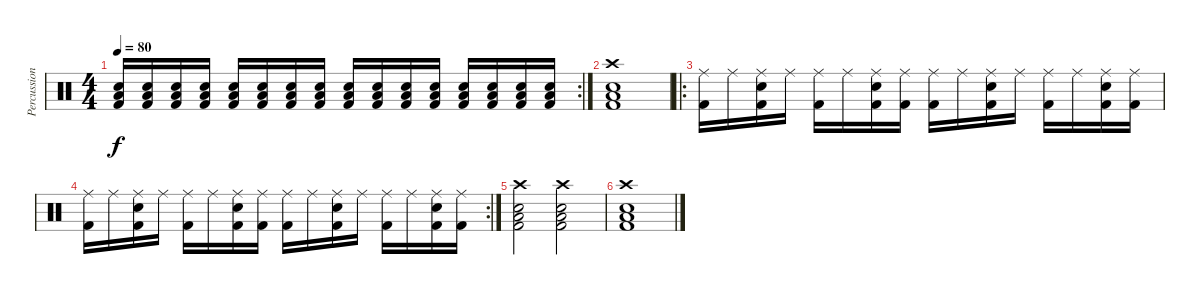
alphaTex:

\track ("Percussions" "Percussion") {instrument percussion}
\staff {score}
\articulation defaults
\rc 2
\ts (4 4)
\tempo 80
\clef neutral
\ks c
("Snare (hit) 2" "Low Tom (hit)" "Kick (hit) 2").16{dy f} ("Snare (hit) 2" "Low Tom (hit)" "Kick (hit) 2").16 ("Snare (hit) 2" "Low Tom (hit)" "Kick (hit) 2").16 ("Snare (hit) 2" "Low Tom (hit)" "Kick (hit) 2").16 ("Snare (hit) 2" "Low Tom (hit)" "Kick (hit) 2").16 ("Snare (hit) 2" "Low Tom (hit)" "Kick (hit) 2").16 ("Snare (hit) 2" "Low Tom (hit)" "Kick (hit) 2").16 ("Snare (hit) 2" "Low Tom (hit)" "Kick (hit) 2").16 ("Snare (hit) 2" "Low Tom (hit)" "Kick (hit) 2").16 ("Snare (hit) 2" "Low Tom (hit)" "Kick (hit) 2").16 ("Snare (hit) 2" "Low Tom (hit)" "Kick (hit) 2").16 ("Snare (hit) 2" "Low Tom (hit)" "Kick (hit) 2").16 ("Snare (hit) 2" "Low Tom (hit)" "Kick (hit) 2").16 ("Snare (hit) 2" "Low Tom (hit)" "Kick (hit) 2").16 ("Snare (hit) 2" "Low Tom (hit)" "Kick (hit) 2").16 ("Snare (hit) 2" "Low Tom (hit)" "Kick (hit) 2").16 |
("Crash high (hit)" "Snare (hit) 2" "Low Tom (hit)" "Kick (hit) 2").1 |
\ro
("Ride (middle)" "Kick (hit) 2").16 "Ride (middle)".16 ("Ride (middle)" "Snare (hit) 2" "Kick (hit) 2").16 "Ride (middle)".16 ("Ride (middle)" "Kick (hit) 2").16 "Ride (middle)".16 ("Ride (middle)" "Snare (hit) 2" "Kick (hit) 2").16 ("Ride (middle)" "Kick (hit) 2").16 ("Ride (middle)" "Kick (hit) 2").16 "Ride (middle)".16 ("Ride (middle)" "Snare (hit) 2" "Kick (hit) 2").16 "Ride (middle)".16 ("Ride (middle)" "Kick (hit) 2").16 "Ride (middle)".16 ("Ride (middle)" "Snare (hit) 2" "Kick (hit) 2").16 ("Ride (middle)" "Kick (hit) 2").16 |
\rc 2
("Ride (middle)" "Kick (hit) 2").16 "Ride (middle)".16 ("Ride (middle)" "Snare (hit) 2" "Kick (hit) 2").16 "Ride (middle)".16 ("Ride (middle)" "Kick (hit) 2").16 "Ride (middle)".16 ("Ride (middle)" "Snare (hit) 2" "Kick (hit) 2").16 ("Ride (middle)" "Kick (hit) 2").16 ("Ride (middle)" "Kick (hit) 2").16 "Ride (middle)".16 ("Ride (middle)" "Snare (hit) 2" "Kick (hit) 2").16 "Ride (middle)".16 ("Ride (middle)" "Kick (hit) 2").16 "Ride (middle)".16 ("Ride (middle)" "Snare (hit) 2" "Kick (hit) 2").16 ("Ride (middle)" "Kick (hit) 2").16 |
("Crash high (hit)" "Snare (hit) 2" "Low Tom (hit)" "Kick (hit) 2").2 ("Crash high (hit)" "Snare (hit) 2" "Low Tom (hit)" "Kick (hit) 2").2 |
("Crash high (hit)" "Snare (hit) 2" "Low Tom (hit)" "Kick (hit) 2").1
